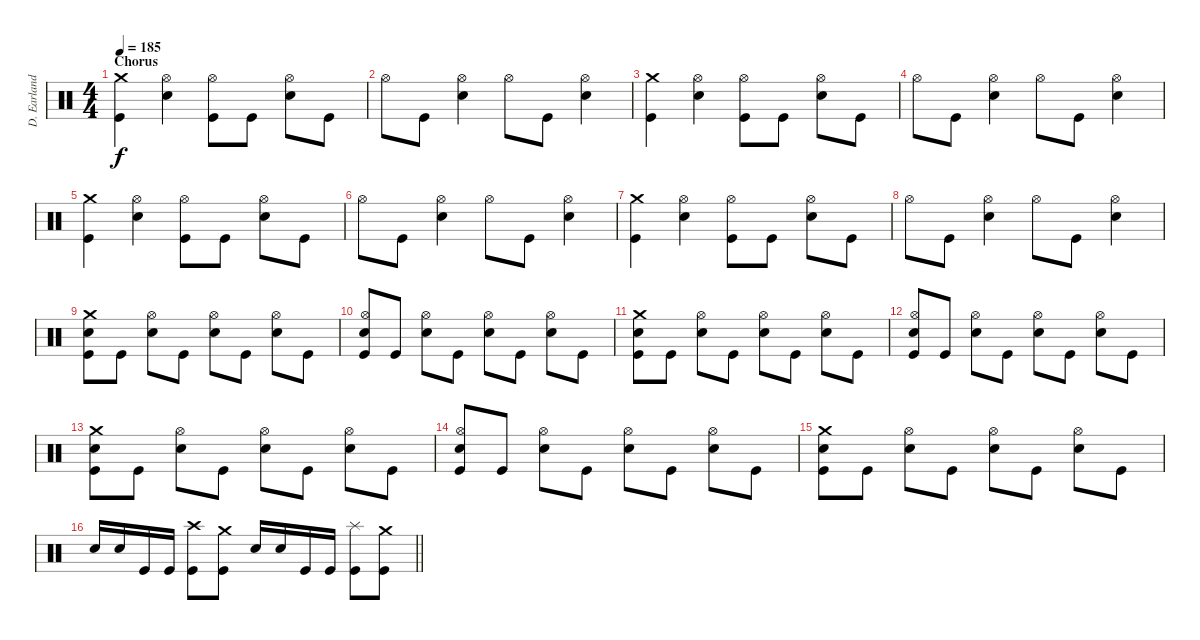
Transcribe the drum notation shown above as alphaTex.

\track ("D. Earlanddson" "D. Earland") {instrument percussion}
\staff {score}
\articulation defaults
\ts (4 4)
\section ("" "Chorus")
\tempo 185
\clef neutral
\ks c
("Crash medium (hit)" "Kick (hit)").4{dy f} ("Hi-Hat (open)" "Electric Snare (hit)").4 ("Hi-Hat (open)" "Kick (hit)").8 "Kick (hit)".8 ("Hi-Hat (open)" "Electric Snare (hit)").8 "Kick (hit)".8 |
"Hi-Hat (open)".8 "Kick (hit)".8 ("Hi-Hat (open)" "Electric Snare (hit)").4 "Hi-Hat (open)".8 "Kick (hit)".8 ("Hi-Hat (open)" "Electric Snare (hit)").4 |
("Crash medium (hit)" "Kick (hit)").4 ("Hi-Hat (open)" "Electric Snare (hit)").4 ("Hi-Hat (open)" "Kick (hit)").8 "Kick (hit)".8 ("Hi-Hat (open)" "Electric Snare (hit)").8 "Kick (hit)".8 |
"Hi-Hat (open)".8 "Kick (hit)".8 ("Hi-Hat (open)" "Electric Snare (hit)").4 "Hi-Hat (open)".8 "Kick (hit)".8 ("Hi-Hat (open)" "Electric Snare (hit)").4 |
("Crash medium (hit)" "Kick (hit)").4 ("Hi-Hat (open)" "Electric Snare (hit)").4 ("Hi-Hat (open)" "Kick (hit)").8 "Kick (hit)".8 ("Hi-Hat (open)" "Electric Snare (hit)").8 "Kick (hit)".8 |
"Hi-Hat (open)".8 "Kick (hit)".8 ("Hi-Hat (open)" "Electric Snare (hit)").4 "Hi-Hat (open)".8 "Kick (hit)".8 ("Hi-Hat (open)" "Electric Snare (hit)").4 |
("Crash medium (hit)" "Kick (hit)").4 ("Hi-Hat (open)" "Electric Snare (hit)").4 ("Hi-Hat (open)" "Kick (hit)").8 "Kick (hit)".8 ("Hi-Hat (open)" "Electric Snare (hit)").8 "Kick (hit)".8 |
"Hi-Hat (open)".8 "Kick (hit)".8 ("Hi-Hat (open)" "Electric Snare (hit)").4 "Hi-Hat (open)".8 "Kick (hit)".8 ("Hi-Hat (open)" "Electric Snare (hit)").4 |
("Crash medium (hit)" "Electric Snare (hit)" "Kick (hit)").8 "Kick (hit)".8 ("Hi-Hat (open)" "Electric Snare (hit)").8 "Kick (hit)".8 ("Hi-Hat (open)" "Electric Snare (hit)").8 "Kick (hit)".8 ("Hi-Hat (open)" "Electric Snare (hit)").8 "Kick (hit)".8 |
("Hi-Hat (open)" "Electric Snare (hit)" "Kick (hit)").8 "Kick (hit)".8 ("Hi-Hat (open)" "Electric Snare (hit)").8 "Kick (hit)".8 ("Hi-Hat (open)" "Electric Snare (hit)").8 "Kick (hit)".8 ("Hi-Hat (open)" "Electric Snare (hit)").8 "Kick (hit)".8 |
("Crash medium (hit)" "Electric Snare (hit)" "Kick (hit)").8 "Kick (hit)".8 ("Hi-Hat (open)" "Electric Snare (hit)").8 "Kick (hit)".8 ("Hi-Hat (open)" "Electric Snare (hit)").8 "Kick (hit)".8 ("Hi-Hat (open)" "Electric Snare (hit)").8 "Kick (hit)".8 |
("Hi-Hat (open)" "Electric Snare (hit)" "Kick (hit)").8 "Kick (hit)".8 ("Hi-Hat (open)" "Electric Snare (hit)").8 "Kick (hit)".8 ("Hi-Hat (open)" "Electric Snare (hit)").8 "Kick (hit)".8 ("Hi-Hat (open)" "Electric Snare (hit)").8 "Kick (hit)".8 |
("Crash medium (hit)" "Electric Snare (hit)" "Kick (hit)").8 "Kick (hit)".8 ("Hi-Hat (open)" "Electric Snare (hit)").8 "Kick (hit)".8 ("Hi-Hat (open)" "Electric Snare (hit)").8 "Kick (hit)".8 ("Hi-Hat (open)" "Electric Snare (hit)").8 "Kick (hit)".8 |
("Hi-Hat (open)" "Electric Snare (hit)" "Kick (hit)").8 "Kick (hit)".8 ("Hi-Hat (open)" "Electric Snare (hit)").8 "Kick (hit)".8 ("Hi-Hat (open)" "Electric Snare (hit)").8 "Kick (hit)".8 ("Hi-Hat (open)" "Electric Snare (hit)").8 "Kick (hit)".8 |
("Crash medium (hit)" "Electric Snare (hit)" "Kick (hit)").8 "Kick (hit)".8 ("Hi-Hat (open)" "Electric Snare (hit)").8 "Kick (hit)".8 ("Hi-Hat (open)" "Electric Snare (hit)").8 "Kick (hit)".8 ("Hi-Hat (open)" "Electric Snare (hit)").8 "Kick (hit)".8 |
\barLineRight lightlight "Electric Snare (hit)".16 "Electric Snare (hit)".16 "Kick (hit)".16 "Kick (hit)".16
("Crash high (hit)" "Kick (hit)").8 ("Crash medium (hit)" "Kick (hit)").8 "Electric Snare (hit)".16 "Electric Snare (hit)".16 "Kick (hit)".16 "Kick (hit)".16 ("Splash (hit)" "Kick (hit)").8 ("Crash medium (hit)" "Kick (hit)").8
